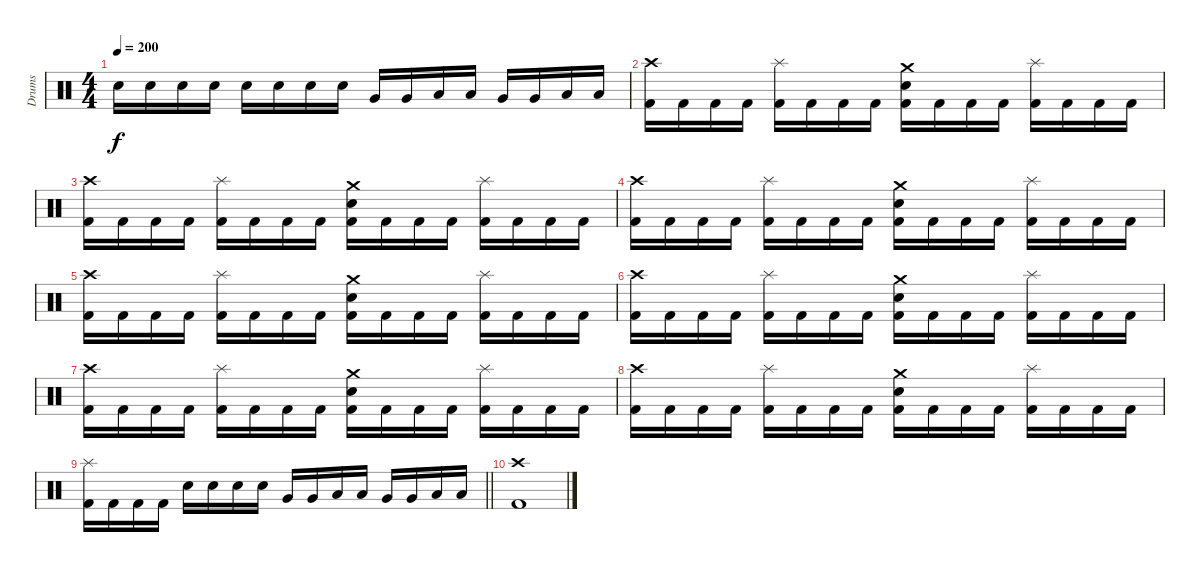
\track ("Drums" "Drums") {instrument percussion}
\staff {score}
\articulation defaults
\ts (4 4)
\tempo 200
\clef neutral
\ks c "Electric Snare (hit)".16{dy f} "Electric Snare (hit)".16 "Electric Snare (hit)".16 "Electric Snare (hit)".16 "Electric Snare (hit)".16 "Electric Snare (hit)".16 "Electric Snare (hit)".16 "Electric Snare (hit)".16 "Very Low Tom (hit)".16 "Very Low Tom (hit)".16 "Low Tom (hit)".16 "Low Tom (hit)".16 "Very Low Tom (hit)".16 "Very Low Tom (hit)".16 "Low Floor Tom (hit)".16 "Low Floor Tom (hit)".16
|
("Crash high (hit)" "Kick (hit) 2").16 "Kick (hit) 2".16 "Kick (hit) 2".16 "Kick (hit) 2".16 ("Splash (hit)" "Kick (hit) 2").16 "Kick (hit) 2".16 "Kick (hit) 2".16 "Kick (hit) 2".16 ("Crash medium (hit)" "Electric Snare (hit)" "Kick (hit) 2").16 "Kick (hit) 2".16 "Kick (hit) 2".16 "Kick (hit) 2".16 ("Splash (hit)" "Kick (hit) 2").16 "Kick (hit) 2".16 "Kick (hit) 2".16 "Kick (hit) 2".16 |
("Crash high (hit)" "Kick (hit) 2").16 "Kick (hit) 2".16 "Kick (hit) 2".16 "Kick (hit) 2".16 ("Splash (hit)" "Kick (hit) 2").16 "Kick (hit) 2".16 "Kick (hit) 2".16 "Kick (hit) 2".16 ("Crash medium (hit)" "Electric Snare (hit)" "Kick (hit) 2").16 "Kick (hit) 2".16 "Kick (hit) 2".16 "Kick (hit) 2".16 ("Splash (hit)" "Kick (hit) 2").16 "Kick (hit) 2".16 "Kick (hit) 2".16 "Kick (hit) 2".16 |
("Crash high (hit)" "Kick (hit) 2").16 "Kick (hit) 2".16 "Kick (hit) 2".16 "Kick (hit) 2".16 ("Splash (hit)" "Kick (hit) 2").16 "Kick (hit) 2".16 "Kick (hit) 2".16 "Kick (hit) 2".16 ("Crash medium (hit)" "Electric Snare (hit)" "Kick (hit) 2").16 "Kick (hit) 2".16 "Kick (hit) 2".16 "Kick (hit) 2".16 ("Splash (hit)" "Kick (hit) 2").16 "Kick (hit) 2".16 "Kick (hit) 2".16 "Kick (hit) 2".16 |
("Crash high (hit)" "Kick (hit) 2").16 "Kick (hit) 2".16 "Kick (hit) 2".16 "Kick (hit) 2".16 ("Splash (hit)" "Kick (hit) 2").16 "Kick (hit) 2".16 "Kick (hit) 2".16 "Kick (hit) 2".16 ("Crash medium (hit)" "Electric Snare (hit)" "Kick (hit) 2").16 "Kick (hit) 2".16 "Kick (hit) 2".16 "Kick (hit) 2".16 ("Splash (hit)" "Kick (hit) 2").16 "Kick (hit) 2".16 "Kick (hit) 2".16 "Kick (hit) 2".16 |
("Crash high (hit)" "Kick (hit) 2").16 "Kick (hit) 2".16 "Kick (hit) 2".16 "Kick (hit) 2".16 ("Splash (hit)" "Kick (hit) 2").16 "Kick (hit) 2".16 "Kick (hit) 2".16 "Kick (hit) 2".16 ("Crash medium (hit)" "Electric Snare (hit)" "Kick (hit) 2").16 "Kick (hit) 2".16 "Kick (hit) 2".16 "Kick (hit) 2".16 ("Splash (hit)" "Kick (hit) 2").16 "Kick (hit) 2".16 "Kick (hit) 2".16 "Kick (hit) 2".16 |
("Crash high (hit)" "Kick (hit) 2").16 "Kick (hit) 2".16 "Kick (hit) 2".16 "Kick (hit) 2".16 ("Splash (hit)" "Kick (hit) 2").16 "Kick (hit) 2".16 "Kick (hit) 2".16 "Kick (hit) 2".16 ("Crash medium (hit)" "Electric Snare (hit)" "Kick (hit) 2").16 "Kick (hit) 2".16 "Kick (hit) 2".16 "Kick (hit) 2".16 ("Splash (hit)" "Kick (hit) 2").16 "Kick (hit) 2".16 "Kick (hit) 2".16 "Kick (hit) 2".16 |
("Crash high (hit)" "Kick (hit) 2").16 "Kick (hit) 2".16 "Kick (hit) 2".16 "Kick (hit) 2".16 ("Splash (hit)" "Kick (hit) 2").16 "Kick (hit) 2".16 "Kick (hit) 2".16 "Kick (hit) 2".16 ("Crash medium (hit)" "Electric Snare (hit)" "Kick (hit) 2").16 "Kick (hit) 2".16 "Kick (hit) 2".16 "Kick (hit) 2".16 ("Splash (hit)" "Kick (hit) 2").16 "Kick (hit) 2".16 "Kick (hit) 2".16 "Kick (hit) 2".16 |
\barLineRight lightlight
("Splash (hit)" "Kick (hit) 2").16 "Kick (hit) 2".16 "Kick (hit) 2".16 "Kick (hit) 2".16 "Electric Snare (hit)".16 "Electric Snare (hit)".16 "Electric Snare (hit)".16 "Electric Snare (hit)".16 "Very Low Tom (hit)".16 "Very Low Tom (hit)".16 "Low Tom (hit)".16 "Low Tom (hit)".16 "Very Low Tom (hit)".16 "Very Low Tom (hit)".16 "Low Floor Tom (hit)".16 "Low Floor Tom (hit)".16 |
("Crash high (hit)" "Kick (hit) 2").1
